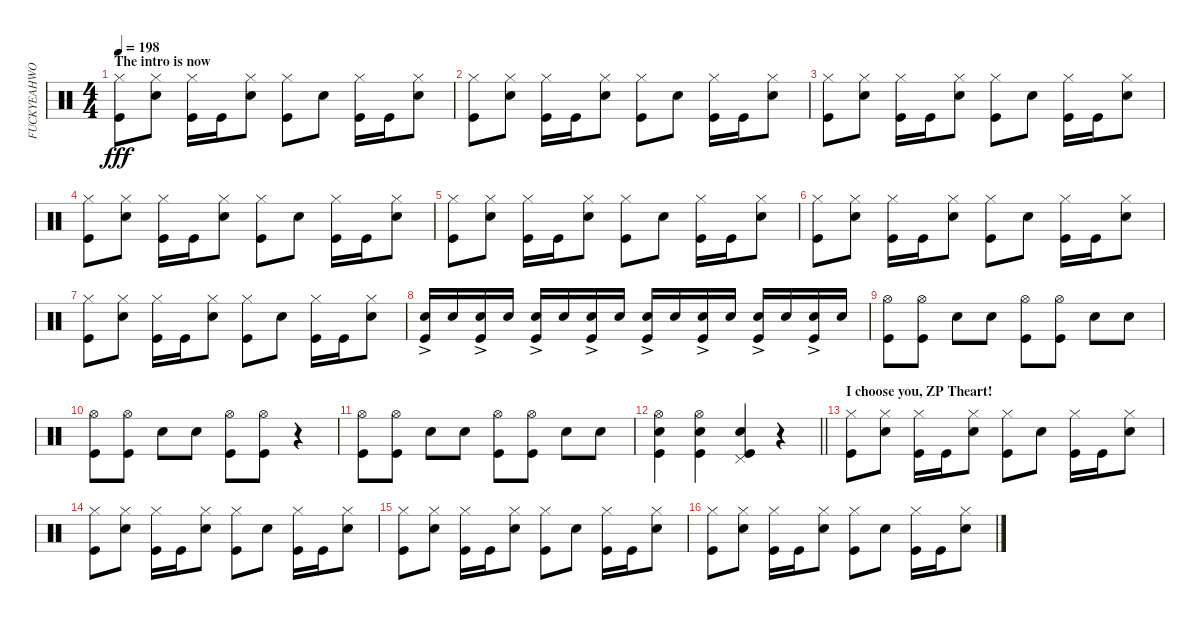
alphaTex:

\track ("FUCKYEAHWOOTDAVEMACKINTOSH(Percussion)" "FUCKYEAHWO") {instrument percussion}
\staff {score}
\articulation defaults
\ts (4 4)
\section ("" "The intro is now")
\tempo 198
\clef neutral
\ks c
("Kick (hit)" "Hi-Hat (closed)").8{dy fff} ("Snare (hit) 2" "Hi-Hat (closed)").8 ("Kick (hit)" "Hi-Hat (closed)").16 "Kick (hit)".16 ("Snare (hit) 2" "Hi-Hat (closed)").8 ("Kick (hit)" "Hi-Hat (closed)").8 "Snare (hit) 2".8 ("Kick (hit)" "Hi-Hat (closed)").16 "Kick (hit)".16 ("Snare (hit) 2" "Hi-Hat (closed)").8 |
("Kick (hit)" "Hi-Hat (closed)").8 ("Snare (hit) 2" "Hi-Hat (closed)").8 ("Kick (hit)" "Hi-Hat (closed)").16 "Kick (hit)".16 ("Snare (hit) 2" "Hi-Hat (closed)").8 ("Kick (hit)" "Hi-Hat (closed)").8 "Snare (hit) 2".8 ("Kick (hit)" "Hi-Hat (closed)").16 "Kick (hit)".16 ("Snare (hit) 2" "Hi-Hat (closed)").8 |
("Kick (hit)" "Hi-Hat (closed)").8 ("Snare (hit) 2" "Hi-Hat (closed)").8 ("Kick (hit)" "Hi-Hat (closed)").16 "Kick (hit)".16 ("Snare (hit) 2" "Hi-Hat (closed)").8 ("Kick (hit)" "Hi-Hat (closed)").8 "Snare (hit) 2".8 ("Kick (hit)" "Hi-Hat (closed)").16 "Kick (hit)".16 ("Snare (hit) 2" "Hi-Hat (closed)").8 |
("Kick (hit)" "Hi-Hat (closed)").8 ("Snare (hit) 2" "Hi-Hat (closed)").8 ("Kick (hit)" "Hi-Hat (closed)").16 "Kick (hit)".16 ("Snare (hit) 2" "Hi-Hat (closed)").8 ("Kick (hit)" "Hi-Hat (closed)").8 "Snare (hit) 2".8 ("Kick (hit)" "Hi-Hat (closed)").16 "Kick (hit)".16 ("Snare (hit) 2" "Hi-Hat (closed)").8 |
("Kick (hit)" "Hi-Hat (closed)").8 ("Snare (hit) 2" "Hi-Hat (closed)").8 ("Kick (hit)" "Hi-Hat (closed)").16 "Kick (hit)".16 ("Snare (hit) 2" "Hi-Hat (closed)").8 ("Kick (hit)" "Hi-Hat (closed)").8 "Snare (hit) 2".8 ("Kick (hit)" "Hi-Hat (closed)").16 "Kick (hit)".16 ("Snare (hit) 2" "Hi-Hat (closed)").8 |
("Kick (hit)" "Hi-Hat (closed)").8 ("Snare (hit) 2" "Hi-Hat (closed)").8 ("Kick (hit)" "Hi-Hat (closed)").16 "Kick (hit)".16 ("Snare (hit) 2" "Hi-Hat (closed)").8 ("Kick (hit)" "Hi-Hat (closed)").8 "Snare (hit) 2".8 ("Kick (hit)" "Hi-Hat (closed)").16 "Kick (hit)".16 ("Snare (hit) 2" "Hi-Hat (closed)").8 |
("Kick (hit)" "Hi-Hat (closed)").8 ("Snare (hit) 2" "Hi-Hat (closed)").8 ("Kick (hit)" "Hi-Hat (closed)").16 "Kick (hit)".16 ("Snare (hit) 2" "Hi-Hat (closed)").8 ("Kick (hit)" "Hi-Hat (closed)").8 "Snare (hit) 2".8 ("Kick (hit)" "Hi-Hat (closed)").16 "Kick (hit)".16 ("Snare (hit) 2" "Hi-Hat (closed)").8 |
("Snare (hit) 2"{ac} "Kick (hit)").16 "Snare (hit) 2".16 ("Snare (hit) 2"{ac} "Kick (hit)").16 "Snare (hit) 2".16 ("Snare (hit) 2"{ac} "Kick (hit)").16 "Snare (hit) 2".16 ("Kick (hit)" "Snare (hit) 2"{ac}).16 "Snare (hit) 2".16 ("Snare (hit) 2"{ac} "Kick (hit)").16 "Snare (hit) 2".16 ("Kick (hit)" "Snare (hit) 2"{ac}).16 "Snare (hit) 2".16 ("Snare (hit) 2"{ac} "Kick (hit)").16 "Snare (hit) 2".16 ("Kick (hit)" "Snare (hit) 2"{ac}).16 "Snare (hit) 2".16 |
("Kick (hit)" "Hi-Hat (open)").8 ("Kick (hit)" "Hi-Hat (open)").8 "Snare (hit) 2".8 "Snare (hit) 2".8 ("Kick (hit)" "Hi-Hat (open)").8 ("Kick (hit)" "Hi-Hat (open)").8 "Snare (hit) 2".8 "Snare (hit) 2".8 |
("Kick (hit)" "Hi-Hat (open)").8 ("Kick (hit)" "Hi-Hat (open)").8 "Snare (hit) 2".8 "Snare (hit) 2".8 ("Kick (hit)" "Hi-Hat (open)").8 ("Kick (hit)" "Hi-Hat (open)").8 r.4 |
("Kick (hit)" "Hi-Hat (open)").8 ("Kick (hit)" "Hi-Hat (open)").8 "Snare (hit) 2".8 "Snare (hit) 2".8 ("Kick (hit)" "Hi-Hat (open)").8 ("Kick (hit)" "Hi-Hat (open)").8 "Snare (hit) 2".8 "Snare (hit) 2".8 |
\barLineRight lightlight
("Kick (hit)" "Snare (hit) 2" "Hi-Hat (open)").4 ("Kick (hit)" "Snare (hit) 2" "Hi-Hat (open)").4 ("Pedal Hi-Hat (hit)" "Kick (hit)" "Snare (hit) 2").4 r.4 |
\section ("" "I choose you, ZP Theart!")
("Kick (hit)" "Hi-Hat (closed)").8 ("Snare (hit) 2" "Hi-Hat (closed)").8 ("Kick (hit)" "Hi-Hat (closed)").16 "Kick (hit)".16 ("Snare (hit) 2" "Hi-Hat (closed)").8 ("Kick (hit)" "Hi-Hat (closed)").8 "Snare (hit) 2".8 ("Kick (hit)" "Hi-Hat (closed)").16 "Kick (hit)".16 ("Snare (hit) 2" "Hi-Hat (closed)").8 |
("Kick (hit)" "Hi-Hat (closed)").8 ("Snare (hit) 2" "Hi-Hat (closed)").8 ("Kick (hit)" "Hi-Hat (closed)").16 "Kick (hit)".16 ("Snare (hit) 2" "Hi-Hat (closed)").8 ("Kick (hit)" "Hi-Hat (closed)").8 "Snare (hit) 2".8 ("Kick (hit)" "Hi-Hat (closed)").16 "Kick (hit)".16 ("Snare (hit) 2" "Hi-Hat (closed)").8 |
("Kick (hit)" "Hi-Hat (closed)").8 ("Snare (hit) 2" "Hi-Hat (closed)").8 ("Kick (hit)" "Hi-Hat (closed)").16 "Kick (hit)".16 ("Snare (hit) 2" "Hi-Hat (closed)").8 ("Kick (hit)" "Hi-Hat (closed)").8 "Snare (hit) 2".8 ("Kick (hit)" "Hi-Hat (closed)").16 "Kick (hit)".16 ("Snare (hit) 2" "Hi-Hat (closed)").8 |
("Kick (hit)" "Hi-Hat (closed)").8 ("Snare (hit) 2" "Hi-Hat (closed)").8 ("Kick (hit)" "Hi-Hat (closed)").16 "Kick (hit)".16 ("Snare (hit) 2" "Hi-Hat (closed)").8 ("Kick (hit)" "Hi-Hat (closed)").8 "Snare (hit) 2".8 ("Kick (hit)" "Hi-Hat (closed)").16 "Kick (hit)".16 ("Snare (hit) 2" "Hi-Hat (closed)").8
